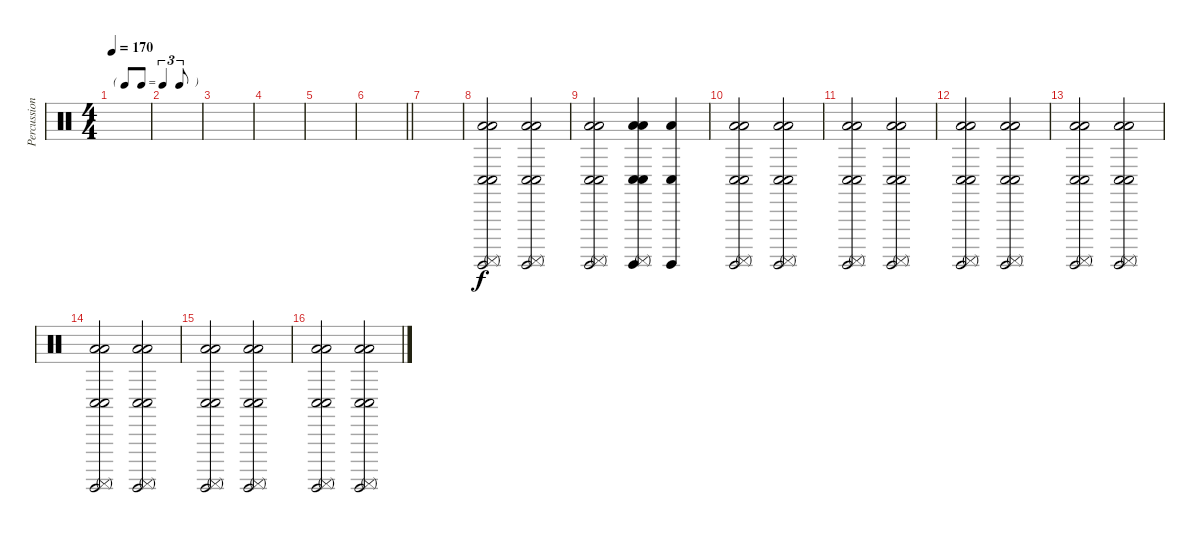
\track ("Percussions" "Percussion") {instrument percussion}
\staff {score}
\articulation defaults
\ts (4 4)
\tf triplet8th
\tempo 170
\clef neutral
\ks c
|
|
|
|
|
\barLineRight lightlight
|
|
("Conga low (hit)" "Conga low (hit)" "Low Floor Tom (hit)" "Surdo (hit)" "Surdo (mute)" "Low Floor Tom (hit)").2 ("Conga low (hit)" "Conga low (hit)" "Low Floor Tom (hit)" "Surdo (hit)" "Surdo (mute)" "Low Floor Tom (hit)").2 |
("Conga low (hit)" "Conga low (hit)" "Low Floor Tom (hit)" "Surdo (hit)" "Surdo (mute)" "Low Floor Tom (hit)").2 ("Conga low (hit)" "Conga low (hit)" "Low Floor Tom (hit)" "Surdo (hit)" "Surdo (mute)" "Low Floor Tom (hit)").4 ("Conga low (hit)" "Low Floor Tom (hit)" "Surdo (hit)").4 |
("Conga low (hit)" "Conga low (hit)" "Low Floor Tom (hit)" "Surdo (hit)" "Surdo (mute)" "Low Floor Tom (hit)").2 ("Conga low (hit)" "Conga low (hit)" "Low Floor Tom (hit)" "Surdo (hit)" "Surdo (mute)" "Low Floor Tom (hit)").2 |
("Conga low (hit)" "Conga low (hit)" "Low Floor Tom (hit)" "Surdo (hit)" "Surdo (mute)" "Low Floor Tom (hit)").2 ("Conga low (hit)" "Conga low (hit)" "Low Floor Tom (hit)" "Surdo (hit)" "Surdo (mute)" "Low Floor Tom (hit)").2 |
("Conga low (hit)" "Conga low (hit)" "Low Floor Tom (hit)" "Surdo (hit)" "Surdo (mute)" "Low Floor Tom (hit)").2 ("Conga low (hit)" "Conga low (hit)" "Low Floor Tom (hit)" "Surdo (hit)" "Surdo (mute)" "Low Floor Tom (hit)").2 |
("Conga low (hit)" "Conga low (hit)" "Low Floor Tom (hit)" "Surdo (hit)" "Surdo (mute)" "Low Floor Tom (hit)").2 ("Conga low (hit)" "Conga low (hit)" "Low Floor Tom (hit)" "Surdo (hit)" "Surdo (mute)" "Low Floor Tom (hit)").2 |
("Conga low (hit)" "Conga low (hit)" "Low Floor Tom (hit)" "Surdo (hit)" "Surdo (mute)" "Low Floor Tom (hit)").2 ("Conga low (hit)" "Conga low (hit)" "Low Floor Tom (hit)" "Surdo (hit)" "Surdo (mute)" "Low Floor Tom (hit)").2 |
("Conga low (hit)" "Conga low (hit)" "Low Floor Tom (hit)" "Surdo (hit)" "Surdo (mute)" "Low Floor Tom (hit)").2 ("Conga low (hit)" "Conga low (hit)" "Low Floor Tom (hit)" "Surdo (hit)" "Surdo (mute)" "Low Floor Tom (hit)").2 |
("Conga low (hit)" "Conga low (hit)" "Low Floor Tom (hit)" "Surdo (hit)" "Surdo (mute)" "Low Floor Tom (hit)").2 ("Conga low (hit)" "Conga low (hit)" "Low Floor Tom (hit)" "Surdo (hit)" "Surdo (mute)" "Low Floor Tom (hit)").2
